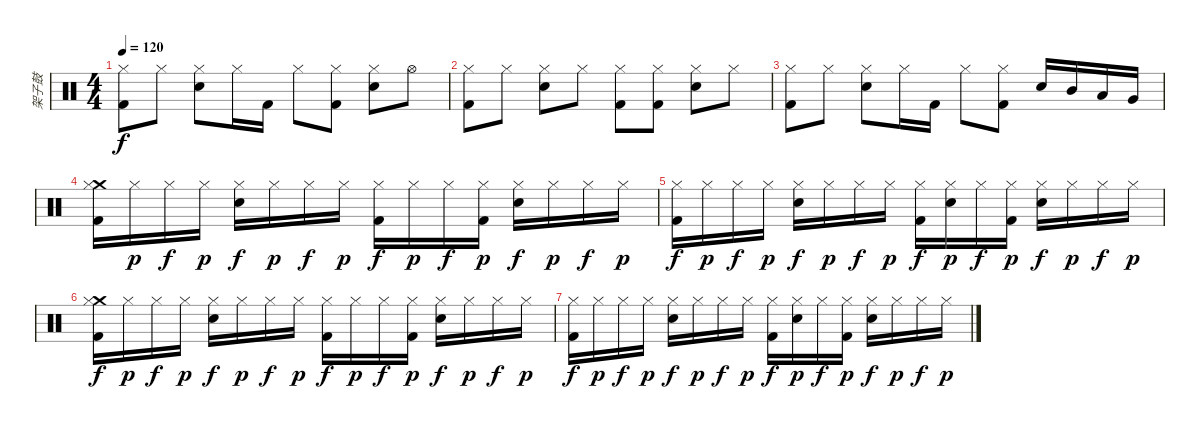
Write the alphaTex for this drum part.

\track ("架子鼓" "架子鼓") {instrument percussion}
\staff {score}
\articulation defaults
\ts (4 4)
\tempo 120
\clef neutral
\ks c
("Hi-Hat (closed)" "Kick (hit) 2").8{dy f} "Hi-Hat (closed)".8 ("Snare (hit) 2" "Hi-Hat (closed)").8 "Hi-Hat (closed)".16 "Kick (hit) 2".16 "Hi-Hat (closed)".8 ("Hi-Hat (closed)" "Kick (hit) 2").8 ("Snare (hit) 2" "Hi-Hat (closed)").8 "Hi-Hat (open)".8 |
("Hi-Hat (closed)" "Kick (hit) 2").8 "Hi-Hat (closed)".8 ("Snare (hit) 2" "Hi-Hat (closed)").8 "Hi-Hat (closed)".8 ("Hi-Hat (closed)" "Kick (hit) 2").8 ("Hi-Hat (closed)" "Kick (hit) 2").8 ("Snare (hit) 2" "Hi-Hat (closed)").8 "Hi-Hat (closed)".8 |
("Hi-Hat (closed)" "Kick (hit) 2").8 "Hi-Hat (closed)".8 ("Snare (hit) 2" "Hi-Hat (closed)").8 "Hi-Hat (closed)".16 "Kick (hit) 2".16 "Hi-Hat (closed)".8 ("Hi-Hat (closed)" "Kick (hit) 2").8 "Snare (hit) 2".16 "Mid Tom (hit)".16 "Low Tom (hit)".16 "Very Low Tom (hit)".16 |
("Crash medium (hit)" "Hi-Hat (closed)" "Kick (hit) 2").16 "Hi-Hat (closed)".16{dy p} "Hi-Hat (closed)".16{dy f} "Hi-Hat (closed)".16{dy p} ("Snare (hit) 2" "Hi-Hat (closed)").16{dy f} "Hi-Hat (closed)".16{dy p} "Hi-Hat (closed)".16{dy f} "Hi-Hat (closed)".16{dy p} ("Hi-Hat (closed)" "Kick (hit) 2").16{dy f} "Hi-Hat (closed)".16{dy p} "Hi-Hat (closed)".16{dy f} ("Hi-Hat (closed)" "Kick (hit) 2").16{dy p} ("Snare (hit) 2" "Hi-Hat (closed)").16{dy f} "Hi-Hat (closed)".16{dy p} "Hi-Hat (closed)".16{dy f} "Hi-Hat (closed)".16{dy p} |
("Hi-Hat (closed)" "Kick (hit) 2").16{dy f} "Hi-Hat (closed)".16{dy p} "Hi-Hat (closed)".16{dy f} "Hi-Hat (closed)".16{dy p} ("Snare (hit) 2" "Hi-Hat (closed)").16{dy f} "Hi-Hat (closed)".16{dy p} "Hi-Hat (closed)".16{dy f} "Hi-Hat (closed)".16{dy p} ("Hi-Hat (closed)" "Kick (hit) 2").16{dy f} ("Snare (hit) 2" "Hi-Hat (closed)").16{dy p} "Hi-Hat (closed)".16{dy f} ("Hi-Hat (closed)" "Kick (hit) 2").16{dy p} ("Snare (hit) 2" "Hi-Hat (closed)").16{dy f} "Hi-Hat (closed)".16{dy p} "Hi-Hat (closed)".16{dy f} "Hi-Hat (closed)".16{dy p} |
("Crash medium (hit)" "Hi-Hat (closed)" "Kick (hit) 2").16{dy f} "Hi-Hat (closed)".16{dy p} "Hi-Hat (closed)".16{dy f} "Hi-Hat (closed)".16{dy p} ("Snare (hit) 2" "Hi-Hat (closed)").16{dy f} "Hi-Hat (closed)".16{dy p} "Hi-Hat (closed)".16{dy f} "Hi-Hat (closed)".16{dy p} ("Hi-Hat (closed)" "Kick (hit) 2").16{dy f} "Hi-Hat (closed)".16{dy p} "Hi-Hat (closed)".16{dy f} ("Hi-Hat (closed)" "Kick (hit) 2").16{dy p} ("Snare (hit) 2" "Hi-Hat (closed)").16{dy f} "Hi-Hat (closed)".16{dy p} "Hi-Hat (closed)".16{dy f} "Hi-Hat (closed)".16{dy p} |
("Hi-Hat (closed)" "Kick (hit) 2").16{dy f} "Hi-Hat (closed)".16{dy p} "Hi-Hat (closed)".16{dy f} "Hi-Hat (closed)".16{dy p} ("Snare (hit) 2" "Hi-Hat (closed)").16{dy f} "Hi-Hat (closed)".16{dy p} "Hi-Hat (closed)".16{dy f} "Hi-Hat (closed)".16{dy p} ("Hi-Hat (closed)" "Kick (hit) 2").16{dy f} ("Snare (hit) 2" "Hi-Hat (closed)").16{dy p} "Hi-Hat (closed)".16{dy f} ("Hi-Hat (closed)" "Kick (hit) 2").16{dy p} ("Snare (hit) 2" "Hi-Hat (closed)").16{dy f} "Hi-Hat (closed)".16{dy p} "Hi-Hat (closed)".16{dy f} "Hi-Hat (closed)".16{dy p}
